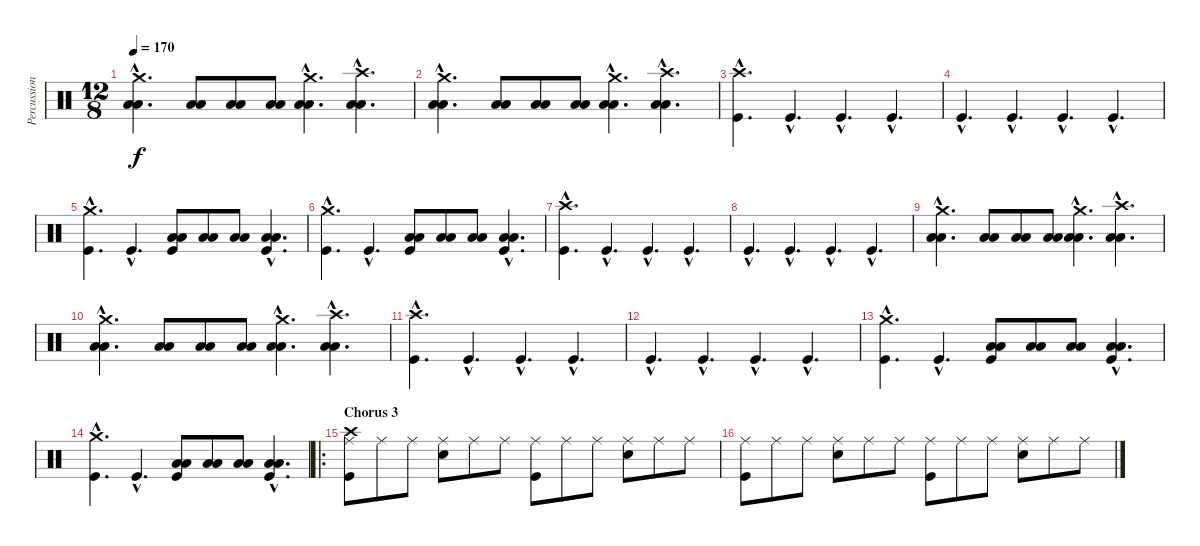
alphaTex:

\track ("Percussion" "Percussion") {instrument percussion}
\staff {score}
\articulation defaults
\ts (12 8)
\tempo 170
\clef neutral
\ks c
("Crash medium (hit)"{hac} "Low Tom (hit)"{hac} "Low Tom (hit)"{hac}).4{d dy f} ("Low Tom (hit)" "Low Tom (hit)").8 ("Low Tom (hit)" "Low Tom (hit)").8 ("Low Tom (hit)" "Low Tom (hit)").8 ("Crash medium (hit)"{hac} "Low Tom (hit)"{hac} "Low Tom (hit)"{hac}).4{d} ("Crash high (hit)"{hac} "Low Tom (hit)"{hac} "Low Tom (hit)"{hac}).4{d} |
("Crash medium (hit)"{hac} "Low Tom (hit)"{hac} "Low Tom (hit)"{hac}).4{d} ("Low Tom (hit)" "Low Tom (hit)").8 ("Low Tom (hit)" "Low Tom (hit)").8 ("Low Tom (hit)" "Low Tom (hit)").8 ("Crash medium (hit)"{hac} "Low Tom (hit)"{hac} "Low Tom (hit)"{hac}).4{d} ("Crash high (hit)"{hac} "Low Tom (hit)"{hac} "Low Tom (hit)"{hac}).4{d} |
("Crash high (hit)"{hac} "Kick (hit)"{hac}).4{d} "Kick (hit)"{hac}.4{d} "Kick (hit)"{hac}.4{d} "Kick (hit)"{hac}.4{d} |
"Kick (hit)"{hac}.4{d} "Kick (hit)"{hac}.4{d} "Kick (hit)"{hac}.4{d} "Kick (hit)"{hac}.4{d} |
("Crash medium (hit)"{hac} "Kick (hit)"{hac}).4{d} "Kick (hit)"{hac}.4{d} ("Low Tom (hit)" "Low Tom (hit)" "Kick (hit)").8 ("Low Tom (hit)" "Low Tom (hit)").8 ("Low Tom (hit)" "Low Tom (hit)").8 ("Low Tom (hit)"{hac} "Low Tom (hit)"{hac} "Kick (hit)"{hac}).4{d} |
("Crash medium (hit)"{hac} "Kick (hit)"{hac}).4{d} "Kick (hit)"{hac}.4{d} ("Low Tom (hit)" "Low Tom (hit)" "Kick (hit)").8 ("Low Tom (hit)" "Low Tom (hit)").8 ("Low Tom (hit)" "Low Tom (hit)").8 ("Low Tom (hit)"{hac} "Low Tom (hit)"{hac} "Kick (hit)"{hac}).4{d} |
("Crash high (hit)"{hac} "Kick (hit)"{hac}).4{d} "Kick (hit)"{hac}.4{d} "Kick (hit)"{hac}.4{d} "Kick (hit)"{hac}.4{d} |
"Kick (hit)"{hac}.4{d} "Kick (hit)"{hac}.4{d} "Kick (hit)"{hac}.4{d} "Kick (hit)"{hac}.4{d} |
("Crash medium (hit)"{hac} "Low Tom (hit)"{hac} "Low Tom (hit)"{hac}).4{d} ("Low Tom (hit)" "Low Tom (hit)").8 ("Low Tom (hit)" "Low Tom (hit)").8 ("Low Tom (hit)" "Low Tom (hit)").8 ("Crash medium (hit)"{hac} "Low Tom (hit)"{hac} "Low Tom (hit)"{hac}).4{d} ("Crash high (hit)"{hac} "Low Tom (hit)"{hac} "Low Tom (hit)"{hac}).4{d} |
("Crash medium (hit)"{hac} "Low Tom (hit)"{hac} "Low Tom (hit)"{hac}).4{d} ("Low Tom (hit)" "Low Tom (hit)").8 ("Low Tom (hit)" "Low Tom (hit)").8 ("Low Tom (hit)" "Low Tom (hit)").8 ("Crash medium (hit)"{hac} "Low Tom (hit)"{hac} "Low Tom (hit)"{hac}).4{d} ("Crash high (hit)"{hac} "Low Tom (hit)"{hac} "Low Tom (hit)"{hac}).4{d} |
("Crash high (hit)"{hac} "Kick (hit)"{hac}).4{d} "Kick (hit)"{hac}.4{d} "Kick (hit)"{hac}.4{d} "Kick (hit)"{hac}.4{d} |
"Kick (hit)"{hac}.4{d} "Kick (hit)"{hac}.4{d} "Kick (hit)"{hac}.4{d} "Kick (hit)"{hac}.4{d} |
("Crash medium (hit)"{hac} "Kick (hit)"{hac}).4{d} "Kick (hit)"{hac}.4{d} ("Low Tom (hit)" "Low Tom (hit)" "Kick (hit)").8 ("Low Tom (hit)" "Low Tom (hit)").8 ("Low Tom (hit)" "Low Tom (hit)").8 ("Low Tom (hit)"{hac} "Low Tom (hit)"{hac} "Kick (hit)"{hac}).4{d} |
("Crash medium (hit)"{hac} "Kick (hit)"{hac}).4{d} "Kick (hit)"{hac}.4{d} ("Low Tom (hit)" "Low Tom (hit)" "Kick (hit)").8 ("Low Tom (hit)" "Low Tom (hit)").8 ("Low Tom (hit)" "Low Tom (hit)").8 ("Low Tom (hit)"{hac} "Low Tom (hit)"{hac} "Kick (hit)"{hac}).4{d} |
\ro
\section ("" "Chorus 3")
("Crash high (hit)" "Ride (middle)" "Kick (hit)").8 "Ride (middle)".8 "Ride (middle)".8 ("Ride (middle)" "Snare (hit) 2").8 "Ride (middle)".8 "Ride (middle)".8 ("Ride (middle)" "Kick (hit)").8 "Ride (middle)".8 "Ride (middle)".8 ("Ride (middle)" "Snare (hit) 2").8 "Ride (middle)".8 "Ride (middle)".8 |
("Ride (middle)" "Kick (hit)").8 "Ride (middle)".8 "Ride (middle)".8 ("Ride (middle)" "Snare (hit) 2").8 "Ride (middle)".8 "Ride (middle)".8 ("Ride (middle)" "Kick (hit)").8 "Ride (middle)".8 "Ride (middle)".8 ("Ride (middle)" "Snare (hit) 2").8 "Ride (middle)".8 "Ride (middle)".8
